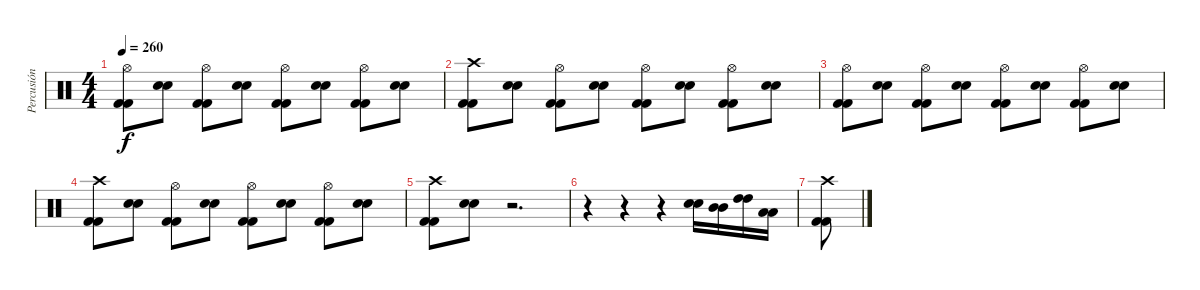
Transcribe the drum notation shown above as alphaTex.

\track ("Percusión" "Percusión") {instrument percussion}
\staff {score}
\articulation defaults
\ts (4 4)
\tempo 260
\clef neutral
\ks c
("Kick (hit) 2" "Kick (hit) 2" "Hi-Hat (open)").8{dy f} ("Electric Snare (hit)" "Electric Snare (hit)").8 ("Kick (hit) 2" "Kick (hit) 2" "Hi-Hat (open)").8 ("Electric Snare (hit)" "Electric Snare (hit)").8 ("Kick (hit) 2" "Kick (hit) 2" "Hi-Hat (open)").8 ("Electric Snare (hit)" "Electric Snare (hit)").8 ("Kick (hit) 2" "Kick (hit) 2" "Hi-Hat (open)").8 ("Electric Snare (hit)" "Electric Snare (hit)").8 |
("Kick (hit) 2" "Kick (hit) 2" "Crash high (hit)").8 ("Electric Snare (hit)" "Electric Snare (hit)").8 ("Kick (hit) 2" "Kick (hit) 2" "Hi-Hat (open)").8 ("Electric Snare (hit)" "Electric Snare (hit)").8 ("Kick (hit) 2" "Kick (hit) 2" "Hi-Hat (open)").8 ("Electric Snare (hit)" "Electric Snare (hit)").8 ("Kick (hit) 2" "Kick (hit) 2" "Hi-Hat (open)").8 ("Electric Snare (hit)" "Electric Snare (hit)").8 |
("Kick (hit) 2" "Kick (hit) 2" "Hi-Hat (open)").8 ("Electric Snare (hit)" "Electric Snare (hit)").8 ("Kick (hit) 2" "Kick (hit) 2" "Hi-Hat (open)").8 ("Electric Snare (hit)" "Electric Snare (hit)").8 ("Kick (hit) 2" "Kick (hit) 2" "Hi-Hat (open)").8 ("Electric Snare (hit)" "Electric Snare (hit)").8 ("Kick (hit) 2" "Kick (hit) 2" "Hi-Hat (open)").8 ("Electric Snare (hit)" "Electric Snare (hit)").8 |
("Kick (hit) 2" "Kick (hit) 2" "Crash high (hit)").8 ("Electric Snare (hit)" "Electric Snare (hit)").8 ("Kick (hit) 2" "Kick (hit) 2" "Hi-Hat (open)").8 ("Electric Snare (hit)" "Electric Snare (hit)").8 ("Kick (hit) 2" "Kick (hit) 2" "Hi-Hat (open)").8 ("Electric Snare (hit)" "Electric Snare (hit)").8 ("Kick (hit) 2" "Kick (hit) 2" "Hi-Hat (open)").8 ("Electric Snare (hit)" "Electric Snare (hit)").8 |
("Kick (hit) 2" "Kick (hit) 2" "Crash high (hit)").8 ("Electric Snare (hit)" "Electric Snare (hit)").8 r.2{d} |
r.4 r.4 r.4 ("Electric Snare (hit)" "Electric Snare (hit)").16 ("Mid Tom (hit)" "Mid Tom (hit)").16 ("High Tom (hit)" "High Tom (hit)").16 ("Low Floor Tom (hit)" "Low Floor Tom (hit)").16 |
("Kick (hit) 2" "Kick (hit) 2" "Crash high (hit)").8
